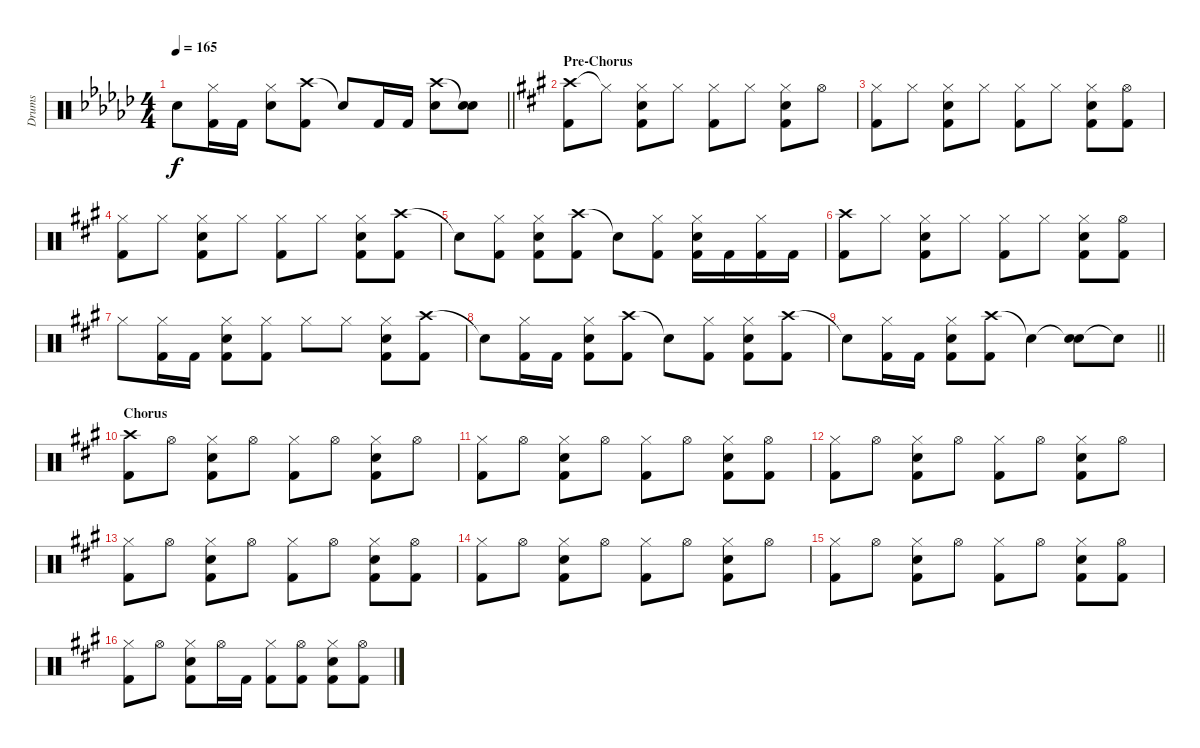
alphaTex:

\track ("Drums" "Drums") {instrument percussion}
\staff {score}
\articulation defaults
\ts (4 4)
\tempo 165
\clef neutral
\barLineRight lightlight
\ks gb "Snare (hit)"{t}.8{dy f}
("Hi-Hat (closed)" "Kick (hit) 2").16 "Kick (hit) 2".16 ("Hi-Hat (closed)" "Snare (hit) 2").8 ("Crash high (hit)" "Kick (hit) 2").8 "Snare (hit)"{t}.8 "Kick (hit) 2".16 "Kick (hit) 2".16 ("Crash high (hit)" "Snare (hit) 2").8 ("Snare (hit)"{t} "Snare (hit) 2").8 |
\section ("" "Pre-Chorus")
\ks a
("Crash high (hit)" "Kick (hit) 2").8 "Hi-Hat (closed)"{t}.8 ("Hi-Hat (closed)" "Snare (hit) 2" "Kick (hit) 2").8 "Hi-Hat (closed)".8 ("Hi-Hat (closed)" "Kick (hit) 2").8 "Hi-Hat (closed)".8 ("Hi-Hat (closed)" "Snare (hit) 2" "Kick (hit) 2").8 "Hi-Hat (open)".8 |
("Hi-Hat (closed)" "Kick (hit) 2").8 "Hi-Hat (closed)".8 ("Hi-Hat (closed)" "Snare (hit) 2" "Kick (hit) 2").8 "Hi-Hat (closed)".8 ("Hi-Hat (closed)" "Kick (hit) 2").8 "Hi-Hat (closed)".8 ("Hi-Hat (closed)" "Snare (hit) 2" "Kick (hit) 2").8 ("Hi-Hat (open)" "Kick (hit) 2").8 |
("Hi-Hat (closed)" "Kick (hit) 2").8 "Hi-Hat (closed)".8 ("Hi-Hat (closed)" "Snare (hit) 2" "Kick (hit) 2").8 "Hi-Hat (closed)".8 ("Hi-Hat (closed)" "Kick (hit) 2").8 "Hi-Hat (closed)".8 ("Hi-Hat (closed)" "Snare (hit) 2" "Kick (hit) 2").8 ("Crash high (hit)" "Kick (hit) 2").8 |
"Snare (hit)"{t}.8 ("Hi-Hat (closed)" "Kick (hit) 2").8 ("Hi-Hat (closed)" "Snare (hit) 2" "Kick (hit) 2").8 ("Crash high (hit)" "Kick (hit) 2").8 "Snare (hit)"{t}.8 ("Hi-Hat (closed)" "Kick (hit) 2").8 ("Hi-Hat (closed)" "Snare (hit) 2" "Kick (hit) 2").16 "Kick (hit) 2".16 ("Hi-Hat (closed)" "Kick (hit) 2").16 "Kick (hit) 2".16 |
("Crash high (hit)" "Kick (hit) 2").8 "Hi-Hat (closed)".8 ("Hi-Hat (closed)" "Snare (hit) 2" "Kick (hit) 2").8 "Hi-Hat (closed)".8 ("Hi-Hat (closed)" "Kick (hit) 2").8 "Hi-Hat (closed)".8 ("Hi-Hat (closed)" "Snare (hit) 2" "Kick (hit) 2").8 ("Hi-Hat (open)" "Kick (hit) 2").8 |
"Hi-Hat (closed)".8 ("Hi-Hat (closed)" "Kick (hit) 2").16 "Kick (hit) 2".16 ("Hi-Hat (closed)" "Snare (hit) 2" "Kick (hit) 2").8 ("Hi-Hat (closed)" "Kick (hit) 2").8 "Hi-Hat (closed)".8 "Hi-Hat (closed)".8 ("Hi-Hat (closed)" "Snare (hit) 2" "Kick (hit) 2").8 ("Crash high (hit)" "Kick (hit) 2").8 |
"Snare (hit)"{t}.8 ("Hi-Hat (closed)" "Kick (hit) 2").16 "Kick (hit) 2".16 ("Hi-Hat (closed)" "Snare (hit) 2" "Kick (hit) 2").8 ("Crash high (hit)" "Kick (hit) 2").8 "Snare (hit)"{t}.8 ("Hi-Hat (closed)" "Kick (hit) 2").8 ("Hi-Hat (closed)" "Snare (hit) 2" "Kick (hit) 2").8 ("Crash high (hit)" "Kick (hit) 2").8 |
\barLineRight lightlight "Snare (hit)"{t}.8
("Hi-Hat (closed)" "Kick (hit) 2").16 "Kick (hit) 2".16 ("Hi-Hat (closed)" "Snare (hit) 2" "Kick (hit) 2").8 ("Crash high (hit)" "Kick (hit) 2").8 "Snare (hit)"{t}.4 ("Snare (hit)"{t} "Snare (hit) 2").8 "Snare (hit)"{t}.8 |
\section ("" "Chorus")
("Crash high (hit)" "Kick (hit) 2").8 "Hi-Hat (open)".8 ("Hi-Hat (closed)" "Snare (hit) 2" "Kick (hit) 2").8 "Hi-Hat (open)".8 ("Hi-Hat (closed)" "Kick (hit) 2").8 "Hi-Hat (open)".8 ("Hi-Hat (closed)" "Snare (hit) 2" "Kick (hit) 2").8 "Hi-Hat (open)".8 |
("Hi-Hat (closed)" "Kick (hit) 2").8 "Hi-Hat (open)".8 ("Hi-Hat (closed)" "Snare (hit) 2" "Kick (hit) 2").8 "Hi-Hat (open)".8 ("Hi-Hat (closed)" "Kick (hit) 2").8 "Hi-Hat (open)".8 ("Hi-Hat (closed)" "Snare (hit) 2" "Kick (hit) 2").8 ("Hi-Hat (open)" "Kick (hit) 2").8 |
("Hi-Hat (closed)" "Kick (hit) 2").8 "Hi-Hat (open)".8 ("Hi-Hat (closed)" "Snare (hit) 2" "Kick (hit) 2").8 "Hi-Hat (open)".8 ("Hi-Hat (closed)" "Kick (hit) 2").8 "Hi-Hat (open)".8 ("Hi-Hat (closed)" "Snare (hit) 2" "Kick (hit) 2").8 "Hi-Hat (open)".8 |
("Hi-Hat (closed)" "Kick (hit) 2").8 "Hi-Hat (open)".8 ("Hi-Hat (closed)" "Snare (hit) 2" "Kick (hit) 2").8 "Hi-Hat (open)".8 ("Hi-Hat (closed)" "Kick (hit) 2").8 "Hi-Hat (open)".8 ("Hi-Hat (closed)" "Snare (hit) 2" "Kick (hit) 2").8 ("Hi-Hat (open)" "Kick (hit) 2").8 |
("Hi-Hat (closed)" "Kick (hit) 2").8 "Hi-Hat (open)".8 ("Hi-Hat (closed)" "Snare (hit) 2" "Kick (hit) 2").8 "Hi-Hat (open)".8 ("Hi-Hat (closed)" "Kick (hit) 2").8 "Hi-Hat (open)".8 ("Hi-Hat (closed)" "Snare (hit) 2" "Kick (hit) 2").8 "Hi-Hat (open)".8 |
("Hi-Hat (closed)" "Kick (hit) 2").8 "Hi-Hat (open)".8 ("Hi-Hat (closed)" "Snare (hit) 2" "Kick (hit) 2").8 "Hi-Hat (open)".8 ("Hi-Hat (closed)" "Kick (hit) 2").8 "Hi-Hat (open)".8 ("Hi-Hat (closed)" "Snare (hit) 2" "Kick (hit) 2").8 ("Hi-Hat (open)" "Kick (hit) 2").8 |
("Hi-Hat (closed)" "Kick (hit) 2").8 "Hi-Hat (open)".8 ("Hi-Hat (closed)" "Snare (hit) 2" "Kick (hit) 2").8 "Hi-Hat (open)".16 "Kick (hit) 2".16 ("Hi-Hat (closed)" "Kick (hit) 2").8 ("Hi-Hat (open)" "Kick (hit) 2").8 ("Hi-Hat (closed)" "Snare (hit) 2" "Kick (hit) 2").8 ("Hi-Hat (open)" "Kick (hit) 2").8
